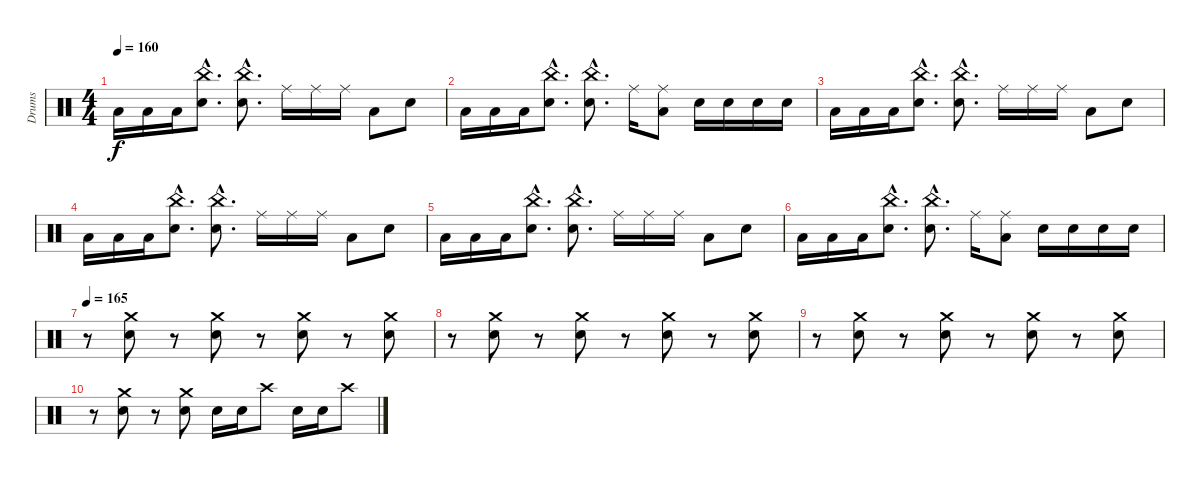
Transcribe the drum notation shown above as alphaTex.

\track ("Drums" "Drums") {instrument percussion}
\staff {score}
\articulation defaults
\ts (4 4)
\tempo 160
\clef neutral
\ks aminor "Low Floor Tom (hit)".16{dy f} "Low Floor Tom (hit)".16 "Low Floor Tom (hit)".16
("China (hit)"{hac} "Electric Snare (hit)"{hac}).8{d} ("China (hit)"{hac} "Electric Snare (hit)"{hac}).8{d} "Ride (middle)".16 "Ride (middle)".16 "Ride (middle)".16 "Low Floor Tom (hit)".8 "Electric Snare (hit)".8 |
"Low Floor Tom (hit)".16 "Low Floor Tom (hit)".16 "Low Floor Tom (hit)".16 ("China (hit)"{hac} "Electric Snare (hit)"{hac}).8{d} ("China (hit)"{hac} "Electric Snare (hit)"{hac}).8{d} "Ride (middle)".16 ("Ride (middle)" "Low Floor Tom (hit)").8 "Electric Snare (hit)".16 "Electric Snare (hit)".16 "Electric Snare (hit)".16 "Electric Snare (hit)".16 |
"Low Floor Tom (hit)".16 "Low Floor Tom (hit)".16 "Low Floor Tom (hit)".16 ("China (hit)"{hac} "Electric Snare (hit)"{hac}).8{d} ("China (hit)"{hac} "Electric Snare (hit)"{hac}).8{d} "Ride (middle)".16 "Ride (middle)".16 "Ride (middle)".16 "Low Floor Tom (hit)".8 "Electric Snare (hit)".8 |
"Low Floor Tom (hit)".16 "Low Floor Tom (hit)".16 "Low Floor Tom (hit)".16 ("China (hit)"{hac} "Electric Snare (hit)"{hac}).8{d} ("China (hit)"{hac} "Electric Snare (hit)"{hac}).8{d} "Ride (middle)".16 "Ride (middle)".16 "Ride (middle)".16 "Low Floor Tom (hit)".8 "Electric Snare (hit)".8 |
"Low Floor Tom (hit)".16 "Low Floor Tom (hit)".16 "Low Floor Tom (hit)".16 ("China (hit)"{hac} "Electric Snare (hit)"{hac}).8{d} ("China (hit)"{hac} "Electric Snare (hit)"{hac}).8{d} "Ride (middle)".16 "Ride (middle)".16 "Ride (middle)".16 "Low Floor Tom (hit)".8 "Electric Snare (hit)".8 |
"Low Floor Tom (hit)".16 "Low Floor Tom (hit)".16 "Low Floor Tom (hit)".16 ("China (hit)"{hac} "Electric Snare (hit)"{hac}).8{d} ("China (hit)"{hac} "Electric Snare (hit)"{hac}).8{d} "Ride (middle)".16 ("Ride (middle)" "Low Floor Tom (hit)").8 "Electric Snare (hit)".16 "Electric Snare (hit)".16 "Electric Snare (hit)".16 "Electric Snare (hit)".16 |
\tempo 165
r.8 ("Crash medium (hit)" "Electric Snare (hit)").8 r.8 ("Crash medium (hit)" "Electric Snare (hit)").8 r.8 ("Crash medium (hit)" "Electric Snare (hit)").8 r.8 ("Crash medium (hit)" "Electric Snare (hit)").8 |
r.8 ("Crash medium (hit)" "Electric Snare (hit)").8 r.8 ("Crash medium (hit)" "Electric Snare (hit)").8 r.8 ("Crash medium (hit)" "Electric Snare (hit)").8 r.8 ("Crash medium (hit)" "Electric Snare (hit)").8 |
r.8 ("Crash medium (hit)" "Electric Snare (hit)").8 r.8 ("Crash medium (hit)" "Electric Snare (hit)").8 r.8 ("Crash medium (hit)" "Electric Snare (hit)").8 r.8 ("Crash medium (hit)" "Electric Snare (hit)").8 |
r.8 ("Crash medium (hit)" "Electric Snare (hit)").8 r.8 ("Crash medium (hit)" "Electric Snare (hit)").8 "Electric Snare (hit)".16 "Electric Snare (hit)".16 "Crash high (hit)".8 "Electric Snare (hit)".16 "Electric Snare (hit)".16 "Crash high (hit)".8
